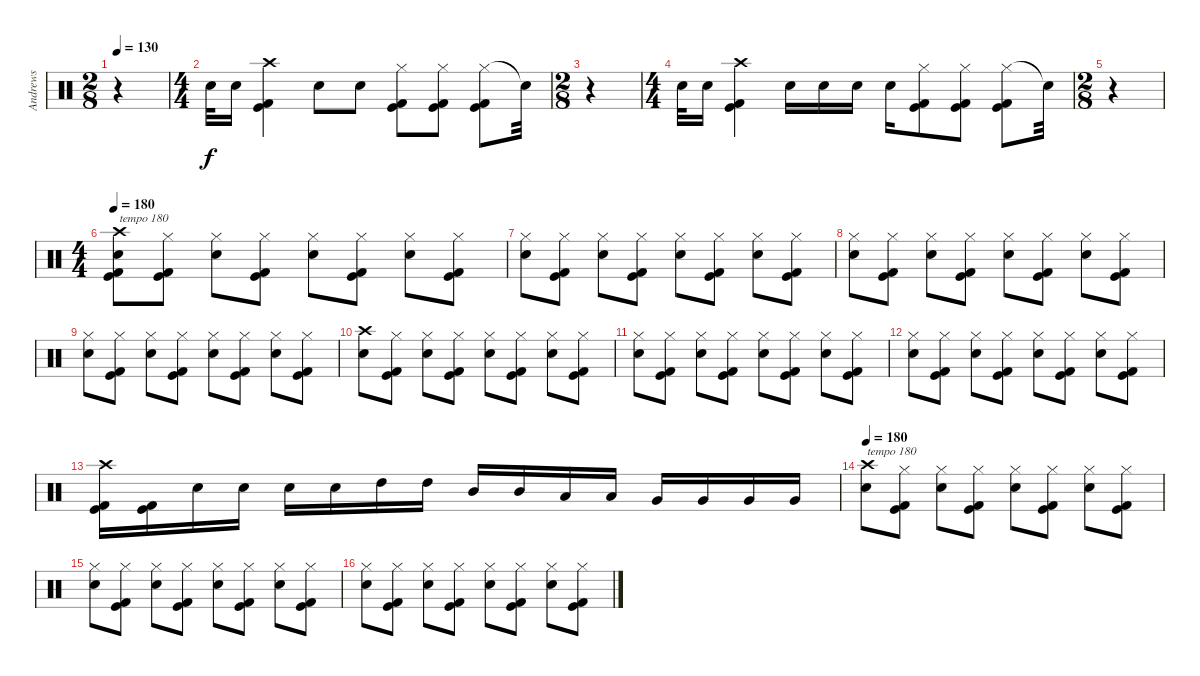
\track ("Andrews" "Andrews") {instrument percussion}
\staff {score}
\articulation defaults
\ts (2 8)
\tempo 130
\clef neutral
\ks c
r.4{dy f} |
\ts (4 4)
"Electric Snare (hit)".32 "Electric Snare (hit)".16 ("Crash high (hit)" "Kick (hit) 2" "Kick (hit)").4 "Electric Snare (hit)".8 "Electric Snare (hit)".8 ("Hi-Hat (closed)" "Kick (hit) 2" "Kick (hit)").8 ("Hi-Hat (closed)" "Kick (hit) 2" "Kick (hit)").8 ("Hi-Hat (closed)" "Kick (hit) 2" "Kick (hit)").8 "Snare (hit)"{t}.32 |
\ts (2 8)
r.4 |
\ts (4 4)
"Electric Snare (hit)".32 "Electric Snare (hit)".16 ("Crash high (hit)" "Kick (hit) 2" "Kick (hit)").4 "Electric Snare (hit)".16 "Electric Snare (hit)".16 "Electric Snare (hit)".16 "Electric Snare (hit)".16 ("Hi-Hat (closed)" "Kick (hit) 2" "Kick (hit)").8 ("Hi-Hat (closed)" "Kick (hit) 2" "Kick (hit)").8 ("Hi-Hat (closed)" "Kick (hit) 2" "Kick (hit)").8 "Snare (hit)"{t}.32 |
\ts (2 8)
r.4 |
\ts (4 4)
\tempo 180
("Crash high (hit)" "Electric Snare (hit)" "Kick (hit) 2" "Kick (hit)").8{txt "tempo 180"} ("Hi-Hat (closed)" "Kick (hit) 2" "Kick (hit)").8 ("Hi-Hat (closed)" "Electric Snare (hit)").8 ("Hi-Hat (closed)" "Kick (hit) 2" "Kick (hit)").8 ("Hi-Hat (closed)" "Electric Snare (hit)").8 ("Hi-Hat (closed)" "Kick (hit) 2" "Kick (hit)").8 ("Hi-Hat (closed)" "Electric Snare (hit)").8 ("Hi-Hat (closed)" "Kick (hit) 2" "Kick (hit)").8 |
("Hi-Hat (closed)" "Electric Snare (hit)").8 ("Hi-Hat (closed)" "Kick (hit) 2" "Kick (hit)").8 ("Hi-Hat (closed)" "Electric Snare (hit)").8 ("Hi-Hat (closed)" "Kick (hit) 2" "Kick (hit)").8 ("Hi-Hat (closed)" "Electric Snare (hit)").8 ("Hi-Hat (closed)" "Kick (hit) 2" "Kick (hit)").8 ("Hi-Hat (closed)" "Electric Snare (hit)").8 ("Hi-Hat (closed)" "Kick (hit) 2" "Kick (hit)").8 |
("Hi-Hat (closed)" "Electric Snare (hit)").8 ("Hi-Hat (closed)" "Kick (hit) 2" "Kick (hit)").8 ("Hi-Hat (closed)" "Electric Snare (hit)").8 ("Hi-Hat (closed)" "Kick (hit) 2" "Kick (hit)").8 ("Hi-Hat (closed)" "Electric Snare (hit)").8 ("Hi-Hat (closed)" "Kick (hit) 2" "Kick (hit)").8 ("Hi-Hat (closed)" "Electric Snare (hit)").8 ("Hi-Hat (closed)" "Kick (hit) 2" "Kick (hit)").8 |
("Hi-Hat (closed)" "Electric Snare (hit)").8 ("Hi-Hat (closed)" "Kick (hit) 2" "Kick (hit)").8 ("Hi-Hat (closed)" "Electric Snare (hit)").8 ("Hi-Hat (closed)" "Kick (hit) 2" "Kick (hit)").8 ("Hi-Hat (closed)" "Electric Snare (hit)").8 ("Hi-Hat (closed)" "Kick (hit) 2" "Kick (hit)").8 ("Hi-Hat (closed)" "Electric Snare (hit)").8 ("Hi-Hat (closed)" "Kick (hit) 2" "Kick (hit)").8 |
("Crash high (hit)" "Electric Snare (hit)").8 ("Hi-Hat (closed)" "Kick (hit) 2" "Kick (hit)").8 ("Hi-Hat (closed)" "Electric Snare (hit)").8 ("Hi-Hat (closed)" "Kick (hit) 2" "Kick (hit)").8 ("Hi-Hat (closed)" "Electric Snare (hit)").8 ("Hi-Hat (closed)" "Kick (hit) 2" "Kick (hit)").8 ("Hi-Hat (closed)" "Electric Snare (hit)").8 ("Hi-Hat (closed)" "Kick (hit) 2" "Kick (hit)").8 |
("Hi-Hat (closed)" "Electric Snare (hit)").8 ("Hi-Hat (closed)" "Kick (hit) 2" "Kick (hit)").8 ("Hi-Hat (closed)" "Electric Snare (hit)").8 ("Hi-Hat (closed)" "Kick (hit) 2" "Kick (hit)").8 ("Hi-Hat (closed)" "Electric Snare (hit)").8 ("Hi-Hat (closed)" "Kick (hit) 2" "Kick (hit)").8 ("Hi-Hat (closed)" "Electric Snare (hit)").8 ("Hi-Hat (closed)" "Kick (hit) 2" "Kick (hit)").8 |
("Hi-Hat (closed)" "Electric Snare (hit)").8 ("Hi-Hat (closed)" "Kick (hit) 2" "Kick (hit)").8 ("Hi-Hat (closed)" "Electric Snare (hit)").8 ("Hi-Hat (closed)" "Kick (hit) 2" "Kick (hit)").8 ("Hi-Hat (closed)" "Electric Snare (hit)").8 ("Hi-Hat (closed)" "Kick (hit) 2" "Kick (hit)").8 ("Hi-Hat (closed)" "Electric Snare (hit)").8 ("Hi-Hat (closed)" "Kick (hit) 2" "Kick (hit)").8 |
("Crash high (hit)" "Kick (hit) 2" "Kick (hit)").16 ("Kick (hit) 2" "Kick (hit)").16 "Electric Snare (hit)".16 "Electric Snare (hit)".16 "Electric Snare (hit)".16 "Electric Snare (hit)".16 "High Tom (hit)".16 "High Tom (hit)".16 "Mid Tom (hit)".16 "Mid Tom (hit)".16 "Low Tom (hit)".16 "Low Tom (hit)".16 "Very Low Tom (hit)".16 "Very Low Tom (hit)".16 "Very Low Tom (hit)".16 "Very Low Tom (hit)".16 |
\tempo 180
("Crash high (hit)" "Electric Snare (hit)").8{txt "tempo 180"} ("Hi-Hat (closed)" "Kick (hit) 2" "Kick (hit)").8 ("Hi-Hat (closed)" "Electric Snare (hit)").8 ("Hi-Hat (closed)" "Kick (hit) 2" "Kick (hit)").8 ("Hi-Hat (closed)" "Electric Snare (hit)").8 ("Hi-Hat (closed)" "Kick (hit) 2" "Kick (hit)").8 ("Hi-Hat (closed)" "Electric Snare (hit)").8 ("Hi-Hat (closed)" "Kick (hit) 2" "Kick (hit)").8 |
("Hi-Hat (closed)" "Electric Snare (hit)").8 ("Hi-Hat (closed)" "Kick (hit) 2" "Kick (hit)").8 ("Hi-Hat (closed)" "Electric Snare (hit)").8 ("Hi-Hat (closed)" "Kick (hit) 2" "Kick (hit)").8 ("Hi-Hat (closed)" "Electric Snare (hit)").8 ("Hi-Hat (closed)" "Kick (hit) 2" "Kick (hit)").8 ("Hi-Hat (closed)" "Electric Snare (hit)").8 ("Hi-Hat (closed)" "Kick (hit) 2" "Kick (hit)").8 |
("Hi-Hat (closed)" "Electric Snare (hit)").8 ("Hi-Hat (closed)" "Kick (hit) 2" "Kick (hit)").8 ("Hi-Hat (closed)" "Electric Snare (hit)").8 ("Hi-Hat (closed)" "Kick (hit) 2" "Kick (hit)").8 ("Hi-Hat (closed)" "Electric Snare (hit)").8 ("Hi-Hat (closed)" "Kick (hit) 2" "Kick (hit)").8 ("Hi-Hat (closed)" "Electric Snare (hit)").8 ("Hi-Hat (closed)" "Kick (hit) 2" "Kick (hit)").8
